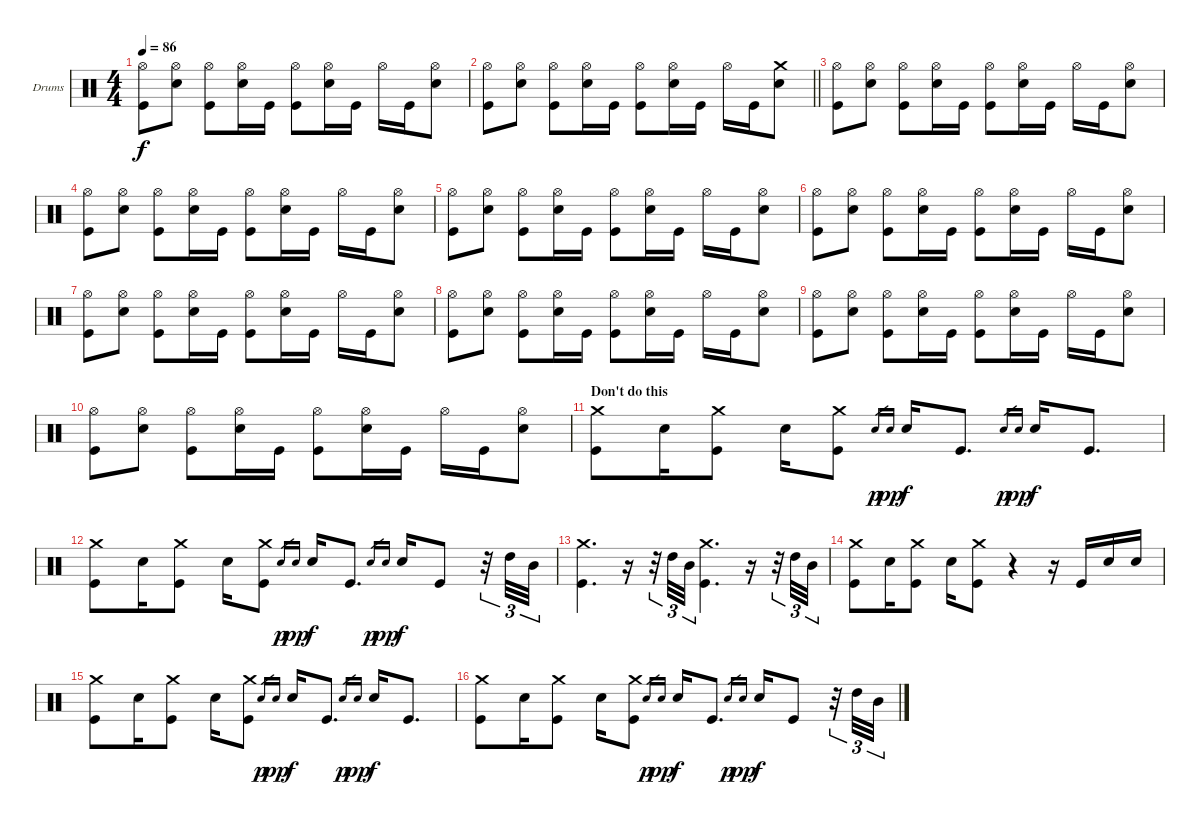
\bracketExtendMode groupsimilarinstruments
\firstSystemTrackNameOrientation horizontal
\otherSystemsTrackNameOrientation horizontal
\track ("Drumkit" "Drums") {instrument percussion}
\staff {score}
\articulation defaults
\ts (4 4)
\tempo 86
\clef neutral
\ks c
("Hi-Hat (open)" "Kick (hit)").8{dy f} ("Hi-Hat (open)" "Snare (hit) 2").8 ("Hi-Hat (open)" "Kick (hit)").8 ("Hi-Hat (open)" "Snare (hit) 2").16 "Kick (hit)".16 ("Hi-Hat (open)" "Kick (hit)").8 ("Hi-Hat (open)" "Snare (hit) 2").16 "Kick (hit)".16 "Hi-Hat (open)".16 "Kick (hit)".16 ("Hi-Hat (open)" "Snare (hit) 2").8 |
\barLineRight lightlight
("Hi-Hat (open)" "Kick (hit)").8 ("Hi-Hat (open)" "Snare (hit) 2").8 ("Hi-Hat (open)" "Kick (hit)").8 ("Hi-Hat (open)" "Snare (hit) 2").16 "Kick (hit)".16 ("Hi-Hat (open)" "Kick (hit)").8 ("Hi-Hat (open)" "Snare (hit) 2").16 "Kick (hit)".16 "Hi-Hat (open)".16 "Kick (hit)".16 ("Crash medium (hit)" "Snare (hit) 2").8 |
("Hi-Hat (open)" "Kick (hit)").8 ("Hi-Hat (open)" "Snare (hit) 2").8 ("Hi-Hat (open)" "Kick (hit)").8 ("Hi-Hat (open)" "Snare (hit) 2").16 "Kick (hit)".16 ("Hi-Hat (open)" "Kick (hit)").8 ("Hi-Hat (open)" "Snare (hit) 2").16 "Kick (hit)".16 "Hi-Hat (open)".16 "Kick (hit)".16 ("Hi-Hat (open)" "Snare (hit) 2").8 |
("Hi-Hat (open)" "Kick (hit)").8 ("Hi-Hat (open)" "Snare (hit) 2").8 ("Hi-Hat (open)" "Kick (hit)").8 ("Hi-Hat (open)" "Snare (hit) 2").16 "Kick (hit)".16 ("Hi-Hat (open)" "Kick (hit)").8 ("Hi-Hat (open)" "Snare (hit) 2").16 "Kick (hit)".16 "Hi-Hat (open)".16 "Kick (hit)".16 ("Hi-Hat (open)" "Snare (hit) 2").8 |
("Hi-Hat (open)" "Kick (hit)").8 ("Hi-Hat (open)" "Snare (hit) 2").8 ("Hi-Hat (open)" "Kick (hit)").8 ("Hi-Hat (open)" "Snare (hit) 2").16 "Kick (hit)".16 ("Hi-Hat (open)" "Kick (hit)").8 ("Hi-Hat (open)" "Snare (hit) 2").16 "Kick (hit)".16 "Hi-Hat (open)".16 "Kick (hit)".16 ("Hi-Hat (open)" "Snare (hit) 2").8 |
("Hi-Hat (open)" "Kick (hit)").8 ("Hi-Hat (open)" "Snare (hit) 2").8 ("Hi-Hat (open)" "Kick (hit)").8 ("Hi-Hat (open)" "Snare (hit) 2").16 "Kick (hit)".16 ("Hi-Hat (open)" "Kick (hit)").8 ("Hi-Hat (open)" "Snare (hit) 2").16 "Kick (hit)".16 "Hi-Hat (open)".16 "Kick (hit)".16 ("Hi-Hat (open)" "Snare (hit) 2").8 |
("Hi-Hat (open)" "Kick (hit)").8 ("Hi-Hat (open)" "Snare (hit) 2").8 ("Hi-Hat (open)" "Kick (hit)").8 ("Hi-Hat (open)" "Snare (hit) 2").16 "Kick (hit)".16 ("Hi-Hat (open)" "Kick (hit)").8 ("Hi-Hat (open)" "Snare (hit) 2").16 "Kick (hit)".16 "Hi-Hat (open)".16 "Kick (hit)".16 ("Hi-Hat (open)" "Snare (hit) 2").8 |
("Hi-Hat (open)" "Kick (hit)").8 ("Hi-Hat (open)" "Snare (hit) 2").8 ("Hi-Hat (open)" "Kick (hit)").8 ("Hi-Hat (open)" "Snare (hit) 2").16 "Kick (hit)".16 ("Hi-Hat (open)" "Kick (hit)").8 ("Hi-Hat (open)" "Snare (hit) 2").16 "Kick (hit)".16 "Hi-Hat (open)".16 "Kick (hit)".16 ("Hi-Hat (open)" "Snare (hit) 2").8 |
("Hi-Hat (open)" "Kick (hit)").8 ("Hi-Hat (open)" "Snare (hit) 2").8 ("Hi-Hat (open)" "Kick (hit)").8 ("Hi-Hat (open)" "Snare (hit) 2").16 "Kick (hit)".16 ("Hi-Hat (open)" "Kick (hit)").8 ("Hi-Hat (open)" "Snare (hit) 2").16 "Kick (hit)".16 "Hi-Hat (open)".16 "Kick (hit)".16 ("Hi-Hat (open)" "Snare (hit) 2").8 |
("Hi-Hat (open)" "Kick (hit)").8 ("Hi-Hat (open)" "Snare (hit) 2").8 ("Hi-Hat (open)" "Kick (hit)").8 ("Hi-Hat (open)" "Snare (hit) 2").16 "Kick (hit)".16 ("Hi-Hat (open)" "Kick (hit)").8 ("Hi-Hat (open)" "Snare (hit) 2").16 "Kick (hit)".16 "Hi-Hat (open)".16 "Kick (hit)".16 ("Hi-Hat (open)" "Snare (hit) 2").8 |
\section ("" "Don't do this")
("Crash medium (hit)" "Kick (hit)").8 "Snare (hit) 2".16 ("Crash medium (hit)" "Kick (hit)").8 "Snare (hit) 2".16 ("Crash medium (hit)" "Kick (hit)").8 "Snare (hit) 2".16{gr dy p} "Snare (hit) 2".16{gr dy pp} "Snare (hit) 2".16{dy f} "Kick (hit)".8{d} "Snare (hit) 2".16{gr dy p} "Snare (hit) 2".16{gr dy pp} "Snare (hit) 2".16{dy f} "Kick (hit)".8{d} |
("Crash medium (hit)" "Kick (hit)").8 "Snare (hit) 2".16 ("Crash medium (hit)" "Kick (hit)").8 "Snare (hit) 2".16 ("Crash medium (hit)" "Kick (hit)").8 "Snare (hit) 2".16{gr dy p} "Snare (hit) 2".16{gr dy pp} "Snare (hit) 2".16{dy f} "Kick (hit)".8{d} "Snare (hit) 2".16{gr dy p} "Snare (hit) 2".16{gr dy pp} "Snare (hit) 2".16{dy f} "Kick (hit)".8 r.32{tu (3 2)} "High Tom (hit)".32{tu (3 2)} "Mid Tom (hit)".32{tu (3 2)} |
("Crash medium (hit)" "Kick (hit)").4{d} r.16 r.32{tu (3 2)} "High Tom (hit)".32{tu (3 2)} "Mid Tom (hit)".32{tu (3 2)} ("Crash medium (hit)" "Kick (hit)").4{d} r.16 r.32{tu (3 2)} "High Tom (hit)".32{tu (3 2)} "Mid Tom (hit)".32{tu (3 2)} |
("Crash medium (hit)" "Kick (hit)").8 "Snare (hit) 2".16 ("Crash medium (hit)" "Kick (hit)").8 "Snare (hit) 2".16 ("Crash medium (hit)" "Kick (hit)").8 r.4 r.16 "Kick (hit)".16 "Snare (hit) 2".16 "Snare (hit) 2".16 |
("Crash medium (hit)" "Kick (hit)").8 "Snare (hit) 2".16 ("Crash medium (hit)" "Kick (hit)").8 "Snare (hit) 2".16 ("Crash medium (hit)" "Kick (hit)").8 "Snare (hit) 2".16{gr dy p} "Snare (hit) 2".16{gr dy pp} "Snare (hit) 2".16{dy f} "Kick (hit)".8{d} "Snare (hit) 2".16{gr dy p} "Snare (hit) 2".16{gr dy pp} "Snare (hit) 2".16{dy f} "Kick (hit)".8{d} |
("Crash medium (hit)" "Kick (hit)").8 "Snare (hit) 2".16 ("Crash medium (hit)" "Kick (hit)").8 "Snare (hit) 2".16 ("Crash medium (hit)" "Kick (hit)").8 "Snare (hit) 2".16{gr dy p} "Snare (hit) 2".16{gr dy pp} "Snare (hit) 2".16{dy f} "Kick (hit)".8{d} "Snare (hit) 2".16{gr dy p} "Snare (hit) 2".16{gr dy pp} "Snare (hit) 2".16{dy f} "Kick (hit)".8 r.32{tu (3 2)} "High Tom (hit)".32{tu (3 2)} "Mid Tom (hit)".32{tu (3 2)}
